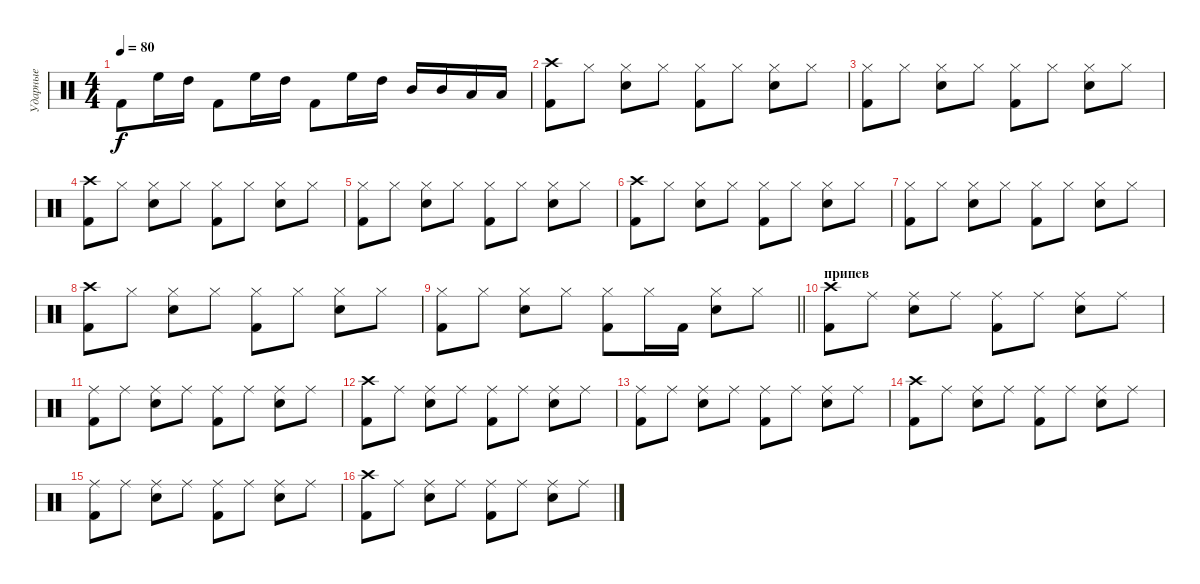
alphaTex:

\track ("Ударные" "Ударные") {instrument percussion}
\staff {score}
\articulation defaults
\ts (4 4)
\tempo 80
\clef neutral
\ks c "Kick (hit) 2".8{dy f} "High Floor Tom (hit)".16 "High Tom (hit)".16 "Kick (hit) 2".8 "High Floor Tom (hit)".16 "High Tom (hit)".16 "Kick (hit) 2".8 "High Floor Tom (hit)".16 "High Tom (hit)".16 "Mid Tom (hit)".16 "Mid Tom (hit)".16 "Low Tom (hit)".16 "Low Tom (hit)".16
|
("Crash high (hit)" "Kick (hit) 2").8 "Hi-Hat (closed)".8 ("Hi-Hat (closed)" "Electric Snare (hit)").8 "Hi-Hat (closed)".8 ("Kick (hit) 2" "Hi-Hat (closed)").8 "Hi-Hat (closed)".8 ("Hi-Hat (closed)" "Electric Snare (hit)").8 "Hi-Hat (closed)".8 |
("Hi-Hat (closed)" "Kick (hit) 2").8 "Hi-Hat (closed)".8 ("Hi-Hat (closed)" "Electric Snare (hit)").8 "Hi-Hat (closed)".8 ("Kick (hit) 2" "Hi-Hat (closed)").8 "Hi-Hat (closed)".8 ("Hi-Hat (closed)" "Electric Snare (hit)").8 "Hi-Hat (closed)".8 |
("Crash high (hit)" "Kick (hit) 2").8 "Hi-Hat (closed)".8 ("Hi-Hat (closed)" "Electric Snare (hit)").8 "Hi-Hat (closed)".8 ("Kick (hit) 2" "Hi-Hat (closed)").8 "Hi-Hat (closed)".8 ("Hi-Hat (closed)" "Electric Snare (hit)").8 "Hi-Hat (closed)".8 |
("Hi-Hat (closed)" "Kick (hit) 2").8 "Hi-Hat (closed)".8 ("Hi-Hat (closed)" "Electric Snare (hit)").8 "Hi-Hat (closed)".8 ("Kick (hit) 2" "Hi-Hat (closed)").8 "Hi-Hat (closed)".8 ("Hi-Hat (closed)" "Electric Snare (hit)").8 "Hi-Hat (closed)".8 |
("Crash high (hit)" "Kick (hit) 2").8 "Hi-Hat (closed)".8 ("Hi-Hat (closed)" "Electric Snare (hit)").8 "Hi-Hat (closed)".8 ("Kick (hit) 2" "Hi-Hat (closed)").8 "Hi-Hat (closed)".8 ("Hi-Hat (closed)" "Electric Snare (hit)").8 "Hi-Hat (closed)".8 |
("Hi-Hat (closed)" "Kick (hit) 2").8 "Hi-Hat (closed)".8 ("Hi-Hat (closed)" "Electric Snare (hit)").8 "Hi-Hat (closed)".8 ("Kick (hit) 2" "Hi-Hat (closed)").8 "Hi-Hat (closed)".8 ("Hi-Hat (closed)" "Electric Snare (hit)").8 "Hi-Hat (closed)".8 |
("Crash high (hit)" "Kick (hit) 2").8 "Hi-Hat (closed)".8 ("Hi-Hat (closed)" "Electric Snare (hit)").8 "Hi-Hat (closed)".8 ("Kick (hit) 2" "Hi-Hat (closed)").8 "Hi-Hat (closed)".8 ("Hi-Hat (closed)" "Electric Snare (hit)").8 "Hi-Hat (closed)".8 |
\barLineRight lightlight
("Hi-Hat (closed)" "Kick (hit) 2").8 "Hi-Hat (closed)".8 ("Hi-Hat (closed)" "Electric Snare (hit)").8 "Hi-Hat (closed)".8 ("Kick (hit) 2" "Hi-Hat (closed)").8 "Hi-Hat (closed)".16 "Kick (hit) 2".16 ("Hi-Hat (closed)" "Electric Snare (hit)").8 "Hi-Hat (closed)".8 |
\section ("" "припев")
("Crash high (hit)" "Kick (hit) 2").8 "Ride (middle)".8 ("Ride (middle)" "Electric Snare (hit)").8 "Ride (middle)".8 ("Kick (hit) 2" "Ride (middle)").8 "Ride (middle)".8 ("Ride (middle)" "Electric Snare (hit)").8 "Ride (middle)".8 |
("Ride (middle)" "Kick (hit) 2").8 "Ride (middle)".8 ("Ride (middle)" "Electric Snare (hit)").8 "Ride (middle)".8 ("Kick (hit) 2" "Ride (middle)").8 "Ride (middle)".8 ("Ride (middle)" "Electric Snare (hit)").8 "Ride (middle)".8 |
("Crash high (hit)" "Kick (hit) 2").8 "Ride (middle)".8 ("Ride (middle)" "Electric Snare (hit)").8 "Ride (middle)".8 ("Kick (hit) 2" "Ride (middle)").8 "Ride (middle)".8 ("Ride (middle)" "Electric Snare (hit)").8 "Ride (middle)".8 |
("Ride (middle)" "Kick (hit) 2").8 "Ride (middle)".8 ("Ride (middle)" "Electric Snare (hit)").8 "Ride (middle)".8 ("Kick (hit) 2" "Ride (middle)").8 "Ride (middle)".8 ("Ride (middle)" "Electric Snare (hit)").8 "Ride (middle)".8 |
("Crash high (hit)" "Kick (hit) 2").8 "Ride (middle)".8 ("Ride (middle)" "Electric Snare (hit)").8 "Ride (middle)".8 ("Kick (hit) 2" "Ride (middle)").8 "Ride (middle)".8 ("Ride (middle)" "Electric Snare (hit)").8 "Ride (middle)".8 |
("Ride (middle)" "Kick (hit) 2").8 "Ride (middle)".8 ("Ride (middle)" "Electric Snare (hit)").8 "Ride (middle)".8 ("Kick (hit) 2" "Ride (middle)").8 "Ride (middle)".8 ("Ride (middle)" "Electric Snare (hit)").8 "Ride (middle)".8 |
("Crash high (hit)" "Kick (hit) 2").8 "Ride (middle)".8 ("Ride (middle)" "Electric Snare (hit)").8 "Ride (middle)".8 ("Kick (hit) 2" "Ride (middle)").8 "Ride (middle)".8 ("Ride (middle)" "Electric Snare (hit)").8 "Ride (middle)".8
